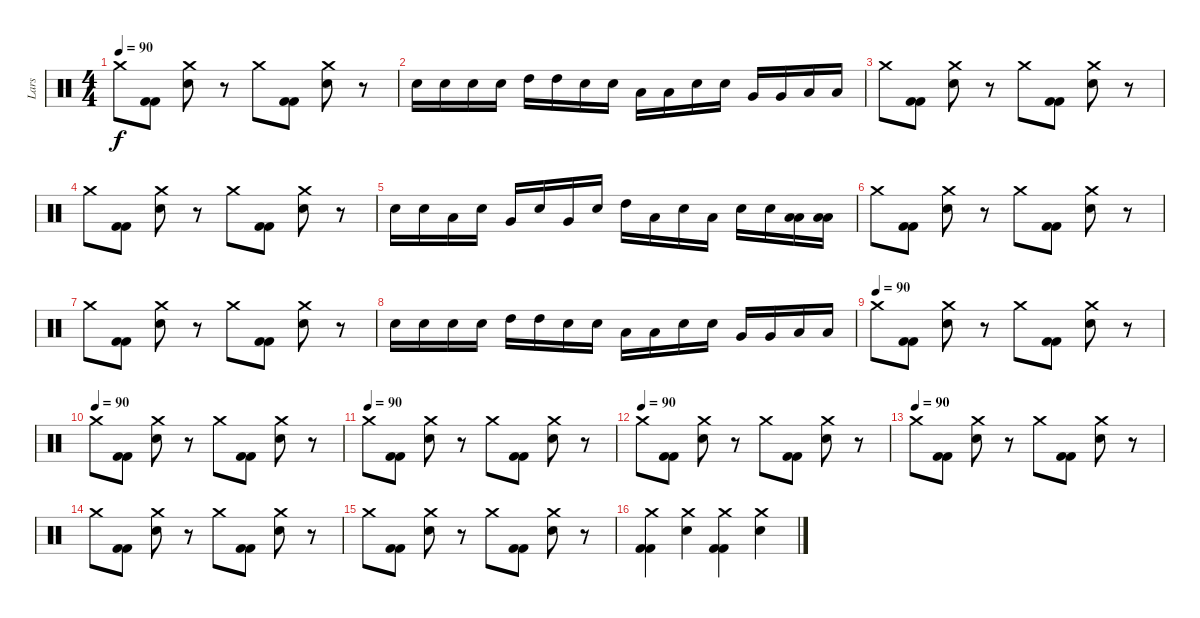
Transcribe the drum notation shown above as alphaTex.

\track ("Lars" "Lars") {instrument percussion}
\staff {score}
\articulation defaults
\ts (4 4)
\tempo 90
\clef neutral
\ks c "Crash medium (hit)".8{dy f}
("Kick (hit) 2" "Kick (hit) 2").8 ("Electric Snare (hit)" "Crash medium (hit)").8 r.8 "Crash medium (hit)".8 ("Kick (hit) 2" "Kick (hit) 2").8 ("Crash medium (hit)" "Electric Snare (hit)").8 r.8 |
"Electric Snare (hit)".16 "Electric Snare (hit)".16 "Electric Snare (hit)".16 "Electric Snare (hit)".16 "High Tom (hit)".16 "High Tom (hit)".16 "Electric Snare (hit)".16 "Electric Snare (hit)".16 "Low Tom (hit)".16 "Low Tom (hit)".16 "Electric Snare (hit)".16 "Electric Snare (hit)".16 "Very Low Tom (hit)".16 "Very Low Tom (hit)".16 "Low Floor Tom (hit)".16 "Low Floor Tom (hit)".16 |
"Crash medium (hit)".8 ("Kick (hit) 2" "Kick (hit) 2").8 ("Electric Snare (hit)" "Crash medium (hit)").8 r.8 "Crash medium (hit)".8 ("Kick (hit) 2" "Kick (hit) 2").8 ("Crash medium (hit)" "Electric Snare (hit)").8 r.8 |
"Crash medium (hit)".8 ("Kick (hit) 2" "Kick (hit) 2").8 ("Electric Snare (hit)" "Crash medium (hit)").8 r.8 "Crash medium (hit)".8 ("Kick (hit) 2" "Kick (hit) 2").8 ("Crash medium (hit)" "Electric Snare (hit)").8 r.8 |
"Electric Snare (hit)".16 "Electric Snare (hit)".16 "Low Tom (hit)".16 "Electric Snare (hit)".16 "Very Low Tom (hit)".16 "Electric Snare (hit)".16 "Very Low Tom (hit)".16 "Electric Snare (hit)".16 "High Tom (hit)".16 "Low Tom (hit)".16 "Electric Snare (hit)".16 "Low Tom (hit)".16 "Electric Snare (hit)".16 "Electric Snare (hit)".16 ("Low Floor Tom (hit)" "Low Floor Tom (hit)").16 ("Low Floor Tom (hit)" "Low Floor Tom (hit)").16 |
"Crash medium (hit)".8 ("Kick (hit) 2" "Kick (hit) 2").8 ("Electric Snare (hit)" "Crash medium (hit)").8 r.8 "Crash medium (hit)".8 ("Kick (hit) 2" "Kick (hit) 2").8 ("Crash medium (hit)" "Electric Snare (hit)").8 r.8 |
"Crash medium (hit)".8 ("Kick (hit) 2" "Kick (hit) 2").8 ("Electric Snare (hit)" "Crash medium (hit)").8 r.8 "Crash medium (hit)".8 ("Kick (hit) 2" "Kick (hit) 2").8 ("Crash medium (hit)" "Electric Snare (hit)").8 r.8 |
"Electric Snare (hit)".16 "Electric Snare (hit)".16 "Electric Snare (hit)".16 "Electric Snare (hit)".16 "High Tom (hit)".16 "High Tom (hit)".16 "Electric Snare (hit)".16 "Electric Snare (hit)".16 "Low Tom (hit)".16 "Low Tom (hit)".16 "Electric Snare (hit)".16 "Electric Snare (hit)".16 "Very Low Tom (hit)".16 "Very Low Tom (hit)".16 "Low Floor Tom (hit)".16 "Low Floor Tom (hit)".16 |
\tempo (90)
"Crash medium (hit)".8 ("Kick (hit) 2" "Kick (hit) 2").8 ("Electric Snare (hit)" "Crash medium (hit)").8 r.8 "Crash medium (hit)".8 ("Kick (hit) 2" "Kick (hit) 2").8 ("Electric Snare (hit)" "Crash medium (hit)").8 r.8 |
\tempo (90)
"Crash medium (hit)".8 ("Kick (hit) 2" "Kick (hit) 2").8 ("Electric Snare (hit)" "Crash medium (hit)").8 r.8 "Crash medium (hit)".8 ("Kick (hit) 2" "Kick (hit) 2").8 ("Electric Snare (hit)" "Crash medium (hit)").8 r.8 |
\tempo (90)
"Crash medium (hit)".8 ("Kick (hit) 2" "Kick (hit) 2").8 ("Electric Snare (hit)" "Crash medium (hit)").8 r.8 "Crash medium (hit)".8 ("Kick (hit) 2" "Kick (hit) 2").8 ("Electric Snare (hit)" "Crash medium (hit)").8 r.8 |
\tempo (90)
"Crash medium (hit)".8 ("Kick (hit) 2" "Kick (hit) 2").8 ("Electric Snare (hit)" "Crash medium (hit)").8 r.8 "Crash medium (hit)".8 ("Kick (hit) 2" "Kick (hit) 2").8 ("Electric Snare (hit)" "Crash medium (hit)").8 r.8 |
\tempo (90)
"Crash medium (hit)".8 ("Kick (hit) 2" "Kick (hit) 2").8 ("Electric Snare (hit)" "Crash medium (hit)").8 r.8 "Crash medium (hit)".8 ("Kick (hit) 2" "Kick (hit) 2").8 ("Electric Snare (hit)" "Crash medium (hit)").8 r.8 |
"Crash medium (hit)".8 ("Kick (hit) 2" "Kick (hit) 2").8 ("Electric Snare (hit)" "Crash medium (hit)").8 r.8 "Crash medium (hit)".8 ("Kick (hit) 2" "Kick (hit) 2").8 ("Electric Snare (hit)" "Crash medium (hit)").8 r.8 |
"Crash medium (hit)".8 ("Kick (hit) 2" "Kick (hit) 2").8 ("Electric Snare (hit)" "Crash medium (hit)").8 r.8 "Crash medium (hit)".8 ("Kick (hit) 2" "Kick (hit) 2").8 ("Electric Snare (hit)" "Crash medium (hit)").8 r.8 |
("Crash medium (hit)" "Kick (hit) 2" "Kick (hit) 2").4 ("Electric Snare (hit)" "Crash medium (hit)").4 ("Crash medium (hit)" "Kick (hit) 2" "Kick (hit) 2").4 ("Electric Snare (hit)" "Crash medium (hit)").4
